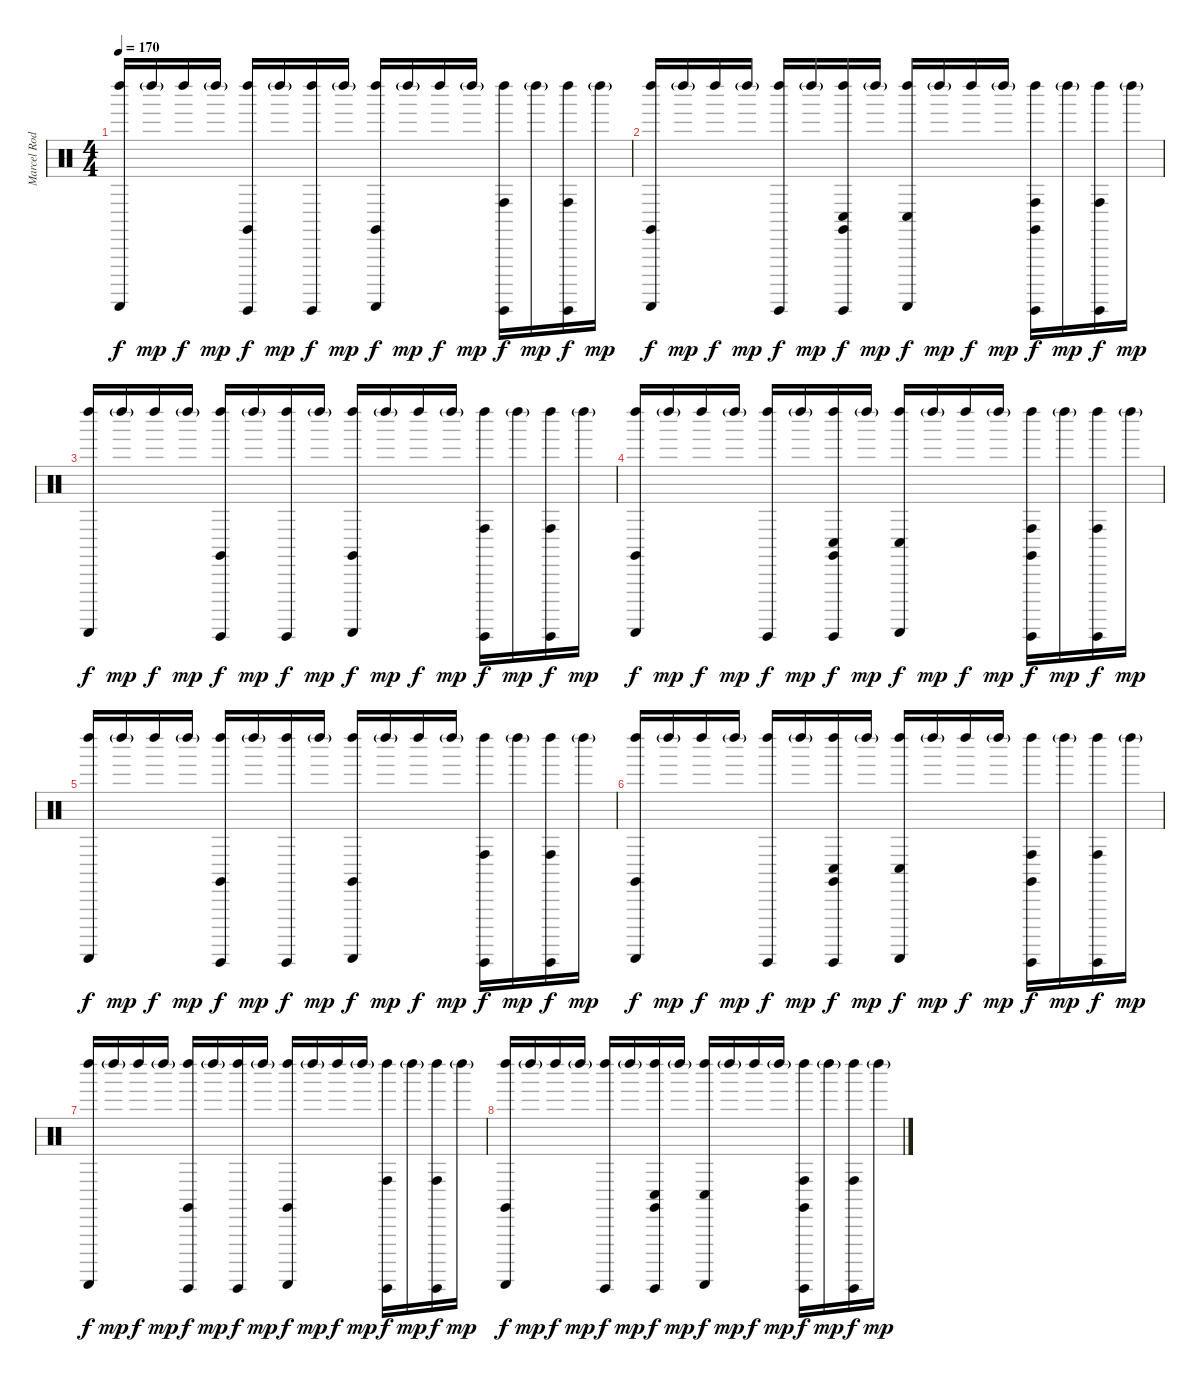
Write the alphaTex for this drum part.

\track ("Marcel Rodriguez-Lopez/Adrian Terrazas [" "Marcel Rod") {instrument percussion}
\staff {score}
\articulation defaults
\ts (4 4)
\tempo 170
\clef neutral
\ks c
("Guiro (scrap-return)" "Left Maraca (hit)").16{dy f} "Left Maraca (hit)"{g}.16{dy mp} "Left Maraca (hit)".16{dy f} "Left Maraca (hit)"{g}.16{dy mp} ("Guiro (hit)" "Left Maraca (hit)" "Claves (hit)").16{dy f} "Left Maraca (hit)"{g}.16{dy mp} ("Guiro (hit)" "Left Maraca (hit)").16{dy f} "Left Maraca (hit)"{g}.16{dy mp} ("Guiro (scrap-return)" "Left Maraca (hit)" "Claves (hit)").16{dy f} "Left Maraca (hit)"{g}.16{dy mp} "Left Maraca (hit)".16{dy f} "Left Maraca (hit)"{g}.16{dy mp} ("Guiro (hit)" "Left Maraca (hit)" "Conga high (hit)").16{dy f} "Left Maraca (hit)"{g}.16{dy mp} ("Guiro (hit)" "Left Maraca (hit)" "Conga high (hit)").16{dy f} "Left Maraca (hit)"{g}.16{dy mp} |
("Guiro (scrap-return)" "Left Maraca (hit)" "Claves (hit)").16{dy f} "Left Maraca (hit)"{g}.16{dy mp} "Left Maraca (hit)".16{dy f} "Left Maraca (hit)"{g}.16{dy mp} ("Guiro (hit)" "Left Maraca (hit)").16{dy f} "Left Maraca (hit)"{g}.16{dy mp} ("Guiro (hit)" "Left Maraca (hit)" "Claves (hit)" "Conga low (hit)").16{dy f} "Left Maraca (hit)"{g}.16{dy mp} ("Guiro (scrap-return)" "Left Maraca (hit)" "Conga low (hit)").16{dy f} "Left Maraca (hit)"{g}.16{dy mp} "Left Maraca (hit)".16{dy f} "Left Maraca (hit)"{g}.16{dy mp} ("Guiro (hit)" "Left Maraca (hit)" "Claves (hit)" "Conga high (hit)").16{dy f} "Left Maraca (hit)"{g}.16{dy mp} ("Guiro (hit)" "Left Maraca (hit)" "Conga high (hit)").16{dy f} "Left Maraca (hit)"{g}.16{dy mp} |
("Guiro (scrap-return)" "Left Maraca (hit)").16{dy f} "Left Maraca (hit)"{g}.16{dy mp} "Left Maraca (hit)".16{dy f} "Left Maraca (hit)"{g}.16{dy mp} ("Guiro (hit)" "Left Maraca (hit)" "Claves (hit)").16{dy f} "Left Maraca (hit)"{g}.16{dy mp} ("Guiro (hit)" "Left Maraca (hit)").16{dy f} "Left Maraca (hit)"{g}.16{dy mp} ("Guiro (scrap-return)" "Left Maraca (hit)" "Claves (hit)").16{dy f} "Left Maraca (hit)"{g}.16{dy mp} "Left Maraca (hit)".16{dy f} "Left Maraca (hit)"{g}.16{dy mp} ("Guiro (hit)" "Left Maraca (hit)" "Conga high (hit)").16{dy f} "Left Maraca (hit)"{g}.16{dy mp} ("Guiro (hit)" "Left Maraca (hit)" "Conga high (hit)").16{dy f} "Left Maraca (hit)"{g}.16{dy mp} |
("Guiro (scrap-return)" "Left Maraca (hit)" "Claves (hit)").16{dy f} "Left Maraca (hit)"{g}.16{dy mp} "Left Maraca (hit)".16{dy f} "Left Maraca (hit)"{g}.16{dy mp} ("Guiro (hit)" "Left Maraca (hit)").16{dy f} "Left Maraca (hit)"{g}.16{dy mp} ("Guiro (hit)" "Left Maraca (hit)" "Claves (hit)" "Conga low (hit)").16{dy f} "Left Maraca (hit)"{g}.16{dy mp} ("Guiro (scrap-return)" "Left Maraca (hit)" "Conga low (hit)").16{dy f} "Left Maraca (hit)"{g}.16{dy mp} "Left Maraca (hit)".16{dy f} "Left Maraca (hit)"{g}.16{dy mp} ("Guiro (hit)" "Left Maraca (hit)" "Claves (hit)" "Conga high (hit)").16{dy f} "Left Maraca (hit)"{g}.16{dy mp} ("Guiro (hit)" "Left Maraca (hit)" "Conga high (hit)").16{dy f} "Left Maraca (hit)"{g}.16{dy mp} |
("Guiro (scrap-return)" "Left Maraca (hit)").16{dy f} "Left Maraca (hit)"{g}.16{dy mp} "Left Maraca (hit)".16{dy f} "Left Maraca (hit)"{g}.16{dy mp} ("Guiro (hit)" "Left Maraca (hit)" "Claves (hit)").16{dy f} "Left Maraca (hit)"{g}.16{dy mp} ("Guiro (hit)" "Left Maraca (hit)").16{dy f} "Left Maraca (hit)"{g}.16{dy mp} ("Guiro (scrap-return)" "Left Maraca (hit)" "Claves (hit)").16{dy f} "Left Maraca (hit)"{g}.16{dy mp} "Left Maraca (hit)".16{dy f} "Left Maraca (hit)"{g}.16{dy mp} ("Guiro (hit)" "Left Maraca (hit)" "Conga high (hit)").16{dy f} "Left Maraca (hit)"{g}.16{dy mp} ("Guiro (hit)" "Left Maraca (hit)" "Conga high (hit)").16{dy f} "Left Maraca (hit)"{g}.16{dy mp} |
("Guiro (scrap-return)" "Left Maraca (hit)" "Claves (hit)").16{dy f} "Left Maraca (hit)"{g}.16{dy mp} "Left Maraca (hit)".16{dy f} "Left Maraca (hit)"{g}.16{dy mp} ("Guiro (hit)" "Left Maraca (hit)").16{dy f} "Left Maraca (hit)"{g}.16{dy mp} ("Guiro (hit)" "Left Maraca (hit)" "Claves (hit)" "Conga low (hit)").16{dy f} "Left Maraca (hit)"{g}.16{dy mp} ("Guiro (scrap-return)" "Left Maraca (hit)" "Conga low (hit)").16{dy f} "Left Maraca (hit)"{g}.16{dy mp} "Left Maraca (hit)".16{dy f} "Left Maraca (hit)"{g}.16{dy mp} ("Guiro (hit)" "Left Maraca (hit)" "Claves (hit)" "Conga high (hit)").16{dy f} "Left Maraca (hit)"{g}.16{dy mp} ("Guiro (hit)" "Left Maraca (hit)" "Conga high (hit)").16{dy f} "Left Maraca (hit)"{g}.16{dy mp} |
("Guiro (scrap-return)" "Left Maraca (hit)").16{dy f} "Left Maraca (hit)"{g}.16{dy mp} "Left Maraca (hit)".16{dy f} "Left Maraca (hit)"{g}.16{dy mp} ("Guiro (hit)" "Left Maraca (hit)" "Claves (hit)").16{dy f} "Left Maraca (hit)"{g}.16{dy mp} ("Guiro (hit)" "Left Maraca (hit)").16{dy f} "Left Maraca (hit)"{g}.16{dy mp} ("Guiro (scrap-return)" "Left Maraca (hit)" "Claves (hit)").16{dy f} "Left Maraca (hit)"{g}.16{dy mp} "Left Maraca (hit)".16{dy f} "Left Maraca (hit)"{g}.16{dy mp} ("Guiro (hit)" "Left Maraca (hit)" "Conga high (hit)").16{dy f} "Left Maraca (hit)"{g}.16{dy mp} ("Guiro (hit)" "Left Maraca (hit)" "Conga high (hit)").16{dy f} "Left Maraca (hit)"{g}.16{dy mp} |
("Guiro (scrap-return)" "Left Maraca (hit)" "Claves (hit)").16{dy f} "Left Maraca (hit)"{g}.16{dy mp} "Left Maraca (hit)".16{dy f} "Left Maraca (hit)"{g}.16{dy mp} ("Guiro (hit)" "Left Maraca (hit)").16{dy f} "Left Maraca (hit)"{g}.16{dy mp} ("Guiro (hit)" "Left Maraca (hit)" "Claves (hit)" "Conga low (hit)").16{dy f} "Left Maraca (hit)"{g}.16{dy mp} ("Guiro (scrap-return)" "Left Maraca (hit)" "Conga low (hit)").16{dy f} "Left Maraca (hit)"{g}.16{dy mp} "Left Maraca (hit)".16{dy f} "Left Maraca (hit)"{g}.16{dy mp} ("Guiro (hit)" "Left Maraca (hit)" "Claves (hit)" "Conga high (hit)").16{dy f} "Left Maraca (hit)"{g}.16{dy mp} ("Guiro (hit)" "Left Maraca (hit)" "Conga high (hit)").16{dy f} "Left Maraca (hit)"{g}.16{dy mp}
